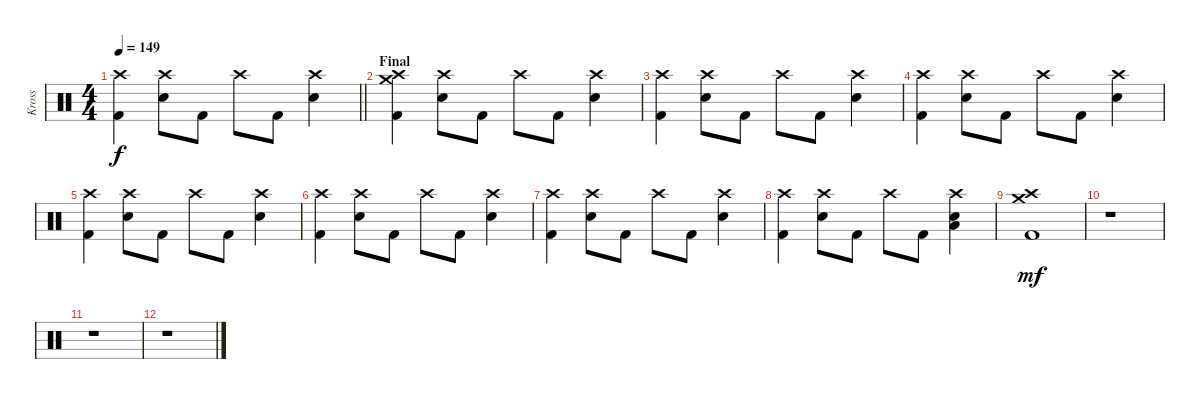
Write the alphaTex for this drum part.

\track ("Kross" "Kross") {instrument percussion}
\staff {score}
\articulation defaults
\ts (4 4)
\tempo 149
\clef neutral
\barLineRight lightlight
\ks c
("Crash high (hit)" "Kick (hit) 2").4{dy f} ("Crash high (hit)" "Electric Snare (hit)").8 "Kick (hit) 2".8 "Crash high (hit)".8 "Kick (hit) 2".8 ("Crash high (hit)" "Electric Snare (hit)").4 |
\section ("" "Final")
("Crash medium (hit)" "Crash high (hit)" "Kick (hit) 2").4 ("Crash high (hit)" "Electric Snare (hit)").8 "Kick (hit) 2".8 "Crash high (hit)".8 "Kick (hit) 2".8 ("Crash high (hit)" "Electric Snare (hit)").4 |
("Crash high (hit)" "Kick (hit) 2").4 ("Crash high (hit)" "Electric Snare (hit)").8 "Kick (hit) 2".8 "Crash high (hit)".8 "Kick (hit) 2".8 ("Crash high (hit)" "Electric Snare (hit)").4 |
("Crash high (hit)" "Kick (hit) 2").4 ("Crash high (hit)" "Electric Snare (hit)").8 "Kick (hit) 2".8 "Crash high (hit)".8 "Kick (hit) 2".8 ("Crash high (hit)" "Electric Snare (hit)").4 |
("Crash high (hit)" "Kick (hit) 2").4 ("Crash high (hit)" "Electric Snare (hit)").8 "Kick (hit) 2".8 "Crash high (hit)".8 "Kick (hit) 2".8 ("Crash high (hit)" "Electric Snare (hit)").4 |
("Crash high (hit)" "Kick (hit) 2").4 ("Crash high (hit)" "Electric Snare (hit)").8 "Kick (hit) 2".8 "Crash high (hit)".8 "Kick (hit) 2".8 ("Crash high (hit)" "Electric Snare (hit)").4 |
("Crash high (hit)" "Kick (hit) 2").4 ("Crash high (hit)" "Electric Snare (hit)").8 "Kick (hit) 2".8 "Crash high (hit)".8 "Kick (hit) 2".8 ("Crash high (hit)" "Electric Snare (hit)").4 |
("Crash high (hit)" "Kick (hit) 2").4 ("Crash high (hit)" "Electric Snare (hit)").8 "Kick (hit) 2".8 "Crash high (hit)".8 "Kick (hit) 2".8 ("Crash high (hit)" "Electric Snare (hit)" "Low Floor Tom (hit)").4 |
("Crash high (hit)" "Crash medium (hit)" "Kick (hit) 2").1{dy mf} |
r.1 |
r.1 |
r.1
